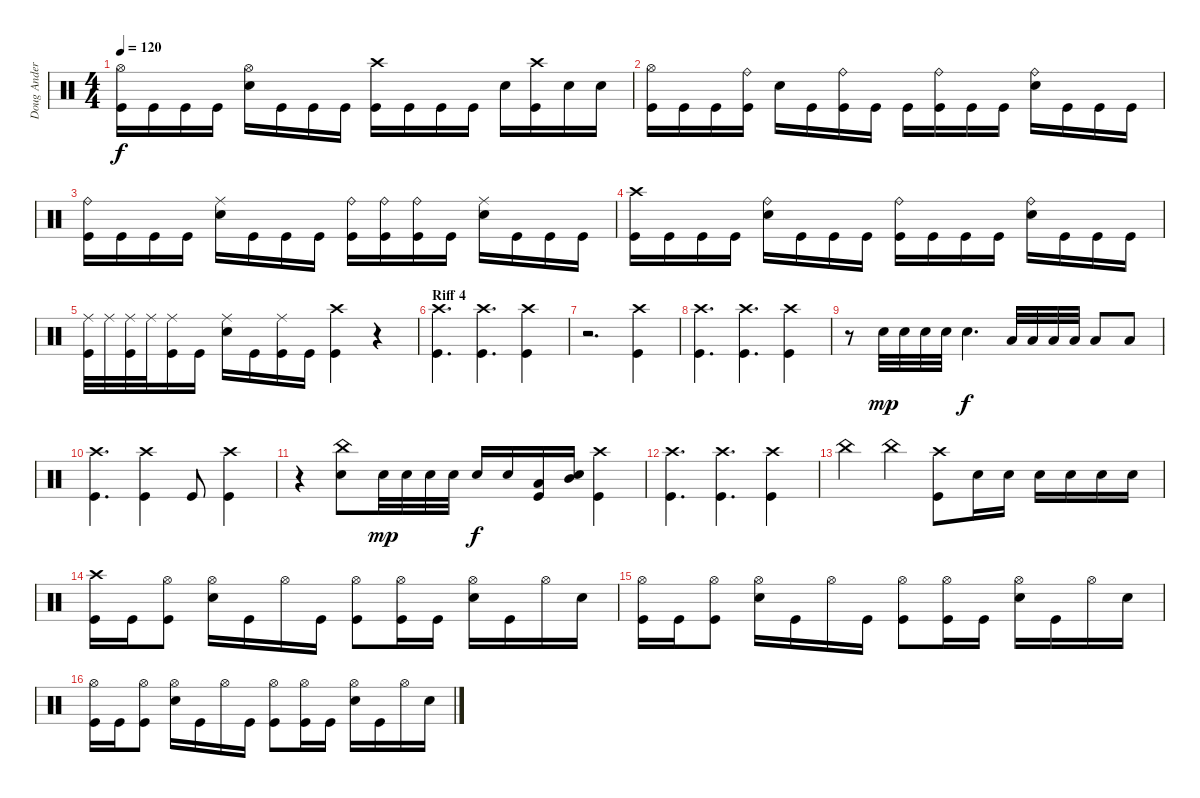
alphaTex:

\track ("Doug Anderson" "Doug Ander") {instrument percussion}
\staff {score}
\articulation defaults
\ts (4 4)
\tempo 120
\clef neutral
\ks c
("Kick (hit)" "Hi-Hat (open)").16{dy f} "Kick (hit)".16 "Kick (hit)".16 "Kick (hit)".16 ("Snare (hit) 2" "Hi-Hat (open)").16 "Kick (hit)".16 "Kick (hit)".16 "Kick (hit)".16 ("Kick (hit)" "Crash high (hit)").16 "Kick (hit)".16 "Kick (hit)".16 "Kick (hit)".16 "Snare (hit) 2".16 ("Kick (hit)" "Crash high (hit)").16 "Snare (hit) 2".16 "Snare (hit) 2".16 |
("Kick (hit)" "Hi-Hat (open)").16 "Kick (hit)".16 "Kick (hit)".16 ("Kick (hit)" "Ride (bell)").16 "Snare (hit) 2".16 "Kick (hit)".16 ("Kick (hit)" "Ride (bell)").16 "Kick (hit)".16 "Kick (hit)".16 ("Kick (hit)" "Ride (bell)").16 "Kick (hit)".16 "Kick (hit)".16 ("Snare (hit) 2" "Ride (bell)").16 "Kick (hit)".16 "Kick (hit)".16 "Kick (hit)".16 |
("Kick (hit)" "Ride (bell)").16 "Kick (hit)".16 "Kick (hit)".16 "Kick (hit)".16 ("Snare (hit) 2" "Ride (middle)").16 "Kick (hit)".16 "Kick (hit)".16 "Kick (hit)".16 ("Kick (hit)" "Ride (bell)").16 ("Kick (hit)" "Ride (bell)").16 ("Kick (hit)" "Ride (bell)").16 "Kick (hit)".16 ("Snare (hit) 2" "Ride (middle)").16 "Kick (hit)".16 "Kick (hit)".16 "Kick (hit)".16 |
("Kick (hit)" "Crash high (hit)").16 "Kick (hit)".16 "Kick (hit)".16 "Kick (hit)".16 ("Snare (hit) 2" "Ride (bell)").16 "Kick (hit)".16 "Kick (hit)".16 "Kick (hit)".16 ("Kick (hit)" "Ride (bell)").16 "Kick (hit)".16 "Kick (hit)".16 "Kick (hit)".16 ("Snare (hit) 2" "Ride (bell)").16 "Kick (hit)".16 "Kick (hit)".16 "Kick (hit)".16 |
("Ride (middle)" "Kick (hit)").32 "Ride (middle)".32 ("Ride (middle)" "Kick (hit)").32 "Ride (middle)".32 ("Ride (middle)" "Kick (hit)").16 "Kick (hit)".16 ("Snare (hit) 2" "Ride (middle)").16 "Kick (hit)".16 ("Kick (hit)" "Ride (middle)").16 "Kick (hit)".16 ("Kick (hit)" "Crash high (hit)").4 r.4 |
\section ("" "Riff 4")
("Kick (hit)" "Crash high (hit)").4{d} ("Kick (hit)" "Crash high (hit)").4{d} ("Kick (hit)" "Crash high (hit)").4 |
r.2{d} ("Kick (hit)" "Crash high (hit)").4 |
("Kick (hit)" "Crash high (hit)").4{d} ("Kick (hit)" "Crash high (hit)").4{d} ("Kick (hit)" "Crash high (hit)").4 |
r.8 "Snare (hit) 2".32{dy mp} "Snare (hit) 2".32 "Snare (hit) 2".32 "Snare (hit) 2".32 "Snare (hit) 2".4{d dy f} "Low Tom (hit)".32 "Low Tom (hit)".32 "Low Tom (hit)".32 "Low Tom (hit)".32 "Low Tom (hit)".8 "Low Tom (hit)".8 |
("Kick (hit)" "Crash high (hit)").4{d} ("Kick (hit)" "Crash high (hit)").4 "Kick (hit)".8 ("Kick (hit)" "Crash high (hit)").4 |
r.4 ("Snare (hit) 2" "China (hit)").8 "Snare (hit) 2".32{dy mp} "Snare (hit) 2".32 "Snare (hit) 2".32 "Snare (hit) 2".32 "Snare (hit) 2".16{dy f} "Snare (hit) 2".16 ("Kick (hit)" "Low Tom (hit)").16 ("Snare (hit) 2" "Mid Tom (hit)").16 ("Kick (hit)" "Crash high (hit)").4 |
("Kick (hit)" "Crash high (hit)").4{d} ("Kick (hit)" "Crash high (hit)").4{d} ("Kick (hit)" "Crash high (hit)").4 |
"China (hit)".4 "China (hit)".4 ("Kick (hit)" "Crash high (hit)").8 "Snare (hit) 2".16 "Snare (hit) 2".16 "Snare (hit) 2".16 "Snare (hit) 2".16 "Snare (hit) 2".16 "Snare (hit) 2".16 |
("Kick (hit)" "Crash high (hit)").16 "Kick (hit)".16 ("Kick (hit)" "Hi-Hat (open)").8 ("Snare (hit) 2" "Hi-Hat (open)").16 "Kick (hit)".16 "Hi-Hat (open)".16 "Kick (hit)".16 ("Kick (hit)" "Hi-Hat (open)").8 ("Kick (hit)" "Hi-Hat (open)").16 "Kick (hit)".16 ("Snare (hit) 2" "Hi-Hat (open)").16 "Kick (hit)".16 "Hi-Hat (open)".16 "Snare (hit) 2".16 |
("Kick (hit)" "Hi-Hat (open)").16 "Kick (hit)".16 ("Kick (hit)" "Hi-Hat (open)").8 ("Snare (hit) 2" "Hi-Hat (open)").16 "Kick (hit)".16 "Hi-Hat (open)".16 "Kick (hit)".16 ("Kick (hit)" "Hi-Hat (open)").8 ("Kick (hit)" "Hi-Hat (open)").16 "Kick (hit)".16 ("Snare (hit) 2" "Hi-Hat (open)").16 "Kick (hit)".16 "Hi-Hat (open)".16 "Snare (hit) 2".16 |
("Kick (hit)" "Hi-Hat (open)").16 "Kick (hit)".16 ("Kick (hit)" "Hi-Hat (open)").8 ("Snare (hit) 2" "Hi-Hat (open)").16 "Kick (hit)".16 "Hi-Hat (open)".16 "Kick (hit)".16 ("Kick (hit)" "Hi-Hat (open)").8 ("Kick (hit)" "Hi-Hat (open)").16 "Kick (hit)".16 ("Snare (hit) 2" "Hi-Hat (open)").16 "Kick (hit)".16 "Hi-Hat (open)".16 "Snare (hit) 2".16
